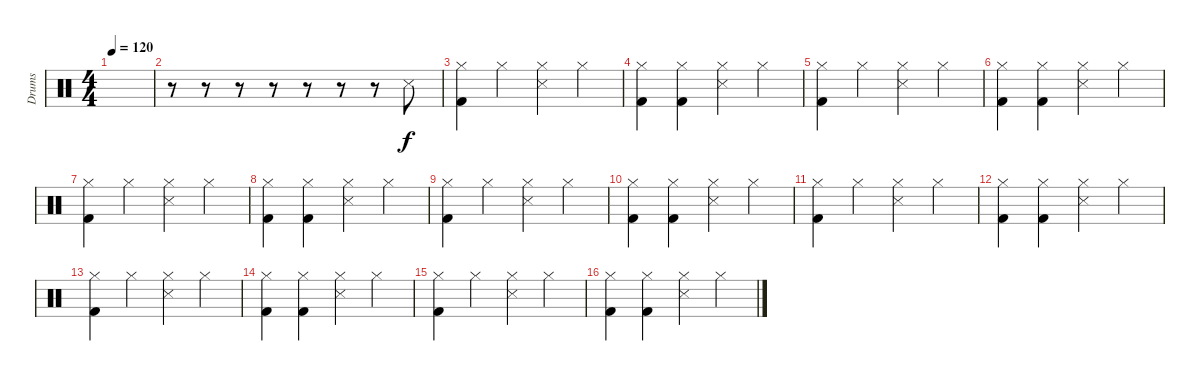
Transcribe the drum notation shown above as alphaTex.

\track ("Drums" "Drums") {instrument percussion}
\staff {score}
\articulation defaults
\ts (4 4)
\tempo 120
\clef neutral
\ks c
|
r.8 r.8 r.8 r.8 r.8 r.8 r.8 "Snare (side stick) 3".8 |
("Hi-Hat (closed)" "Kick (hit) 2").4 "Hi-Hat (closed)".4 ("Hi-Hat (closed)" "Snare (side stick) 3").4 "Hi-Hat (closed)".4 |
("Hi-Hat (closed)" "Kick (hit) 2").4 ("Hi-Hat (closed)" "Kick (hit) 2").4 ("Hi-Hat (closed)" "Snare (side stick) 3").4 "Hi-Hat (closed)".4 |
("Hi-Hat (closed)" "Kick (hit) 2").4 "Hi-Hat (closed)".4 ("Hi-Hat (closed)" "Snare (side stick) 3").4 "Hi-Hat (closed)".4 |
("Hi-Hat (closed)" "Kick (hit) 2").4 ("Hi-Hat (closed)" "Kick (hit) 2").4 ("Hi-Hat (closed)" "Snare (side stick) 3").4 "Hi-Hat (closed)".4 |
("Hi-Hat (closed)" "Kick (hit) 2").4 "Hi-Hat (closed)".4 ("Hi-Hat (closed)" "Snare (side stick) 3").4 "Hi-Hat (closed)".4 |
("Hi-Hat (closed)" "Kick (hit) 2").4 ("Hi-Hat (closed)" "Kick (hit) 2").4 ("Hi-Hat (closed)" "Snare (side stick) 3").4 "Hi-Hat (closed)".4 |
("Hi-Hat (closed)" "Kick (hit) 2").4 "Hi-Hat (closed)".4 ("Hi-Hat (closed)" "Snare (side stick) 3").4 "Hi-Hat (closed)".4 |
("Hi-Hat (closed)" "Kick (hit) 2").4 ("Hi-Hat (closed)" "Kick (hit) 2").4 ("Hi-Hat (closed)" "Snare (side stick) 3").4 "Hi-Hat (closed)".4 |
("Hi-Hat (closed)" "Kick (hit) 2").4 "Hi-Hat (closed)".4 ("Hi-Hat (closed)" "Snare (side stick) 3").4 "Hi-Hat (closed)".4 |
("Hi-Hat (closed)" "Kick (hit) 2").4 ("Hi-Hat (closed)" "Kick (hit) 2").4 ("Hi-Hat (closed)" "Snare (side stick) 3").4 "Hi-Hat (closed)".4 |
("Hi-Hat (closed)" "Kick (hit) 2").4 "Hi-Hat (closed)".4 ("Hi-Hat (closed)" "Snare (side stick) 3").4 "Hi-Hat (closed)".4 |
("Hi-Hat (closed)" "Kick (hit) 2").4 ("Hi-Hat (closed)" "Kick (hit) 2").4 ("Hi-Hat (closed)" "Snare (side stick) 3").4 "Hi-Hat (closed)".4 |
("Hi-Hat (closed)" "Kick (hit) 2").4 "Hi-Hat (closed)".4 ("Hi-Hat (closed)" "Snare (side stick) 3").4 "Hi-Hat (closed)".4 |
("Hi-Hat (closed)" "Kick (hit) 2").4 ("Hi-Hat (closed)" "Kick (hit) 2").4 ("Hi-Hat (closed)" "Snare (side stick) 3").4 "Hi-Hat (closed)".4
